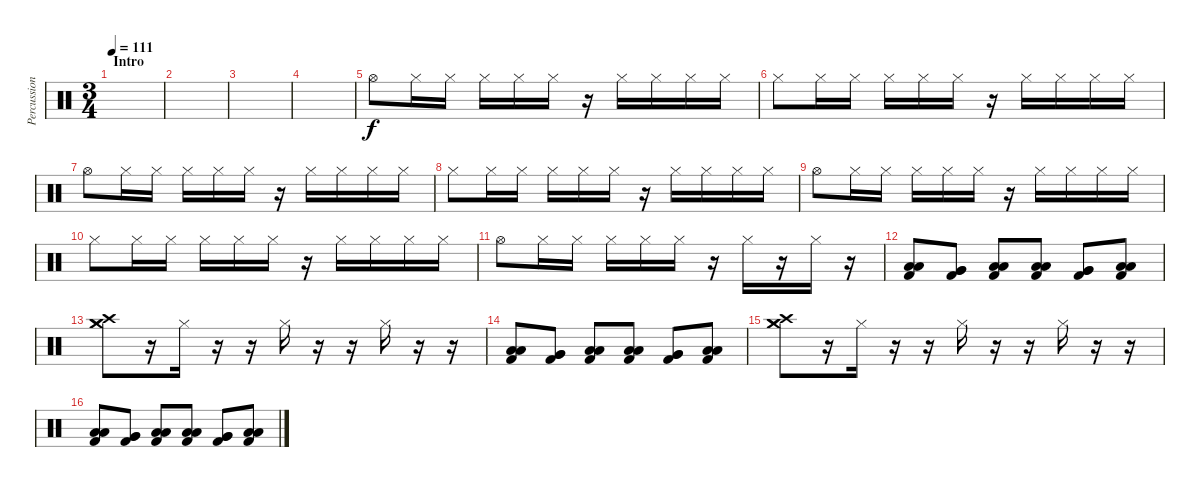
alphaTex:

\track ("Percussion" "Percussion") {instrument percussion}
\staff {score}
\articulation defaults
\ts (3 4)
\section ("" "Intro")
\tempo 111
\clef neutral
\ks c
|
|
|
|
"Hi-Hat (open)".8 "Hi-Hat (closed)".16 "Hi-Hat (closed)".16 "Hi-Hat (closed)".16 "Hi-Hat (closed)".16 "Hi-Hat (closed)".16 r.16 "Hi-Hat (closed)".16 "Hi-Hat (closed)".16 "Hi-Hat (closed)".16 "Hi-Hat (closed)".16 |
"Hi-Hat (closed)".8 "Hi-Hat (closed)".16 "Hi-Hat (closed)".16 "Hi-Hat (closed)".16 "Hi-Hat (closed)".16 "Hi-Hat (closed)".16 r.16 "Hi-Hat (closed)".16 "Hi-Hat (closed)".16 "Hi-Hat (closed)".16 "Hi-Hat (closed)".16 |
"Hi-Hat (open)".8 "Hi-Hat (closed)".16 "Hi-Hat (closed)".16 "Hi-Hat (closed)".16 "Hi-Hat (closed)".16 "Hi-Hat (closed)".16 r.16 "Hi-Hat (closed)".16 "Hi-Hat (closed)".16 "Hi-Hat (closed)".16 "Hi-Hat (closed)".16 |
"Hi-Hat (closed)".8 "Hi-Hat (closed)".16 "Hi-Hat (closed)".16 "Hi-Hat (closed)".16 "Hi-Hat (closed)".16 "Hi-Hat (closed)".16 r.16 "Hi-Hat (closed)".16 "Hi-Hat (closed)".16 "Hi-Hat (closed)".16 "Hi-Hat (closed)".16 |
"Hi-Hat (open)".8 "Hi-Hat (closed)".16 "Hi-Hat (closed)".16 "Hi-Hat (closed)".16 "Hi-Hat (closed)".16 "Hi-Hat (closed)".16 r.16 "Hi-Hat (closed)".16 "Hi-Hat (closed)".16 "Hi-Hat (closed)".16 "Hi-Hat (closed)".16 |
"Hi-Hat (closed)".8 "Hi-Hat (closed)".16 "Hi-Hat (closed)".16 "Hi-Hat (closed)".16 "Hi-Hat (closed)".16 "Hi-Hat (closed)".16 r.16 "Hi-Hat (closed)".16 "Hi-Hat (closed)".16 "Hi-Hat (closed)".16 "Hi-Hat (closed)".16 |
"Hi-Hat (open)".8 "Hi-Hat (closed)".16 "Hi-Hat (closed)".16 "Hi-Hat (closed)".16 "Hi-Hat (closed)".16 "Hi-Hat (closed)".16 r.16 "Hi-Hat (closed)".16 r.16 "Hi-Hat (closed)".16 r.16 |
("Low Tom (hit)" "Low Tom (hit)" "Kick (hit) 2").8 ("Very Low Tom (hit)" "Very Low Tom (hit)" "Kick (hit) 2").8 ("Low Floor Tom (hit)" "Low Floor Tom (hit)" "Kick (hit) 2").8 ("Low Tom (hit)" "Low Tom (hit)" "Kick (hit) 2").8 ("Very Low Tom (hit)" "Very Low Tom (hit)" "Kick (hit) 2").8 ("Low Floor Tom (hit)" "Low Floor Tom (hit)" "Kick (hit) 2").8 |
("Crash medium (hit)" "Crash high (hit)" "Crash medium (hit)").8 r.16 "Hi-Hat (closed)".16 r.16 r.16 "Hi-Hat (closed)".16 r.16 r.16 "Hi-Hat (closed)".16 r.16 r.16 |
("Low Tom (hit)" "Low Tom (hit)" "Kick (hit) 2").8 ("Very Low Tom (hit)" "Very Low Tom (hit)" "Kick (hit) 2").8 ("Low Floor Tom (hit)" "Low Floor Tom (hit)" "Kick (hit) 2").8 ("Low Tom (hit)" "Low Tom (hit)" "Kick (hit) 2").8 ("Very Low Tom (hit)" "Very Low Tom (hit)" "Kick (hit) 2").8 ("Low Floor Tom (hit)" "Low Floor Tom (hit)" "Kick (hit) 2").8 |
("Crash medium (hit)" "Crash high (hit)" "Crash medium (hit)").8 r.16 "Hi-Hat (closed)".16 r.16 r.16 "Hi-Hat (closed)".16 r.16 r.16 "Hi-Hat (closed)".16 r.16 r.16 |
("Low Tom (hit)" "Low Tom (hit)" "Kick (hit) 2").8 ("Very Low Tom (hit)" "Very Low Tom (hit)" "Kick (hit) 2").8 ("Low Floor Tom (hit)" "Low Floor Tom (hit)" "Kick (hit) 2").8 ("Low Tom (hit)" "Low Tom (hit)" "Kick (hit) 2").8 ("Very Low Tom (hit)" "Very Low Tom (hit)" "Kick (hit) 2").8 ("Low Floor Tom (hit)" "Low Floor Tom (hit)" "Kick (hit) 2").8
